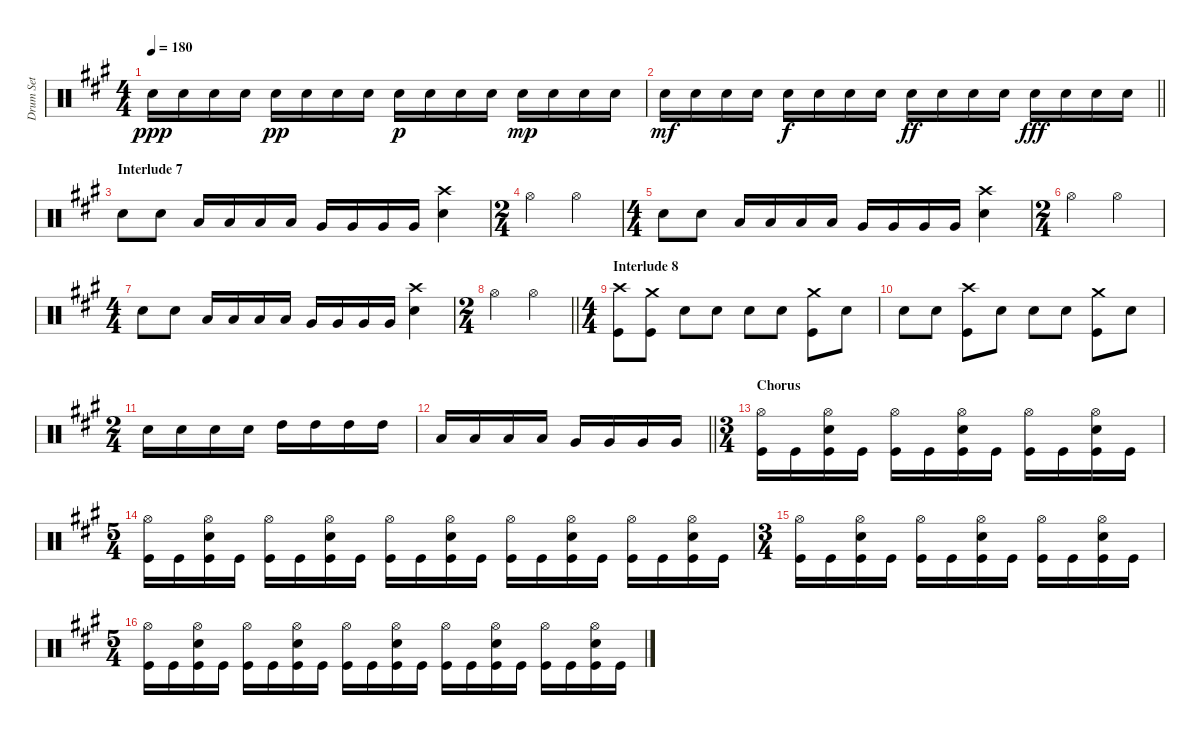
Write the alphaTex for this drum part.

\track ("Drum Set" "Drum Set") {instrument percussion}
\staff {score}
\articulation defaults
\ts (4 4)
\tempo 180
\clef neutral
\ks a "Electric Snare (hit)".16{dy ppp} "Electric Snare (hit)".16 "Electric Snare (hit)".16 "Electric Snare (hit)".16 "Electric Snare (hit)".16{dy pp} "Electric Snare (hit)".16 "Electric Snare (hit)".16 "Electric Snare (hit)".16 "Electric Snare (hit)".16{dy p} "Electric Snare (hit)".16 "Electric Snare (hit)".16 "Electric Snare (hit)".16 "Electric Snare (hit)".16{dy mp} "Electric Snare (hit)".16 "Electric Snare (hit)".16 "Electric Snare (hit)".16
|
\barLineRight lightlight "Electric Snare (hit)".16{dy mf} "Electric Snare (hit)".16 "Electric Snare (hit)".16 "Electric Snare (hit)".16 "Electric Snare (hit)".16{dy f} "Electric Snare (hit)".16 "Electric Snare (hit)".16 "Electric Snare (hit)".16 "Electric Snare (hit)".16{dy ff} "Electric Snare (hit)".16 "Electric Snare (hit)".16 "Electric Snare (hit)".16 "Electric Snare (hit)".16{dy fff} "Electric Snare (hit)".16 "Electric Snare (hit)".16 "Electric Snare (hit)".16
|
\section ("" "Interlude 7")
"Electric Snare (hit)".8 "Electric Snare (hit)".8 "Low Tom (hit)".16 "Low Tom (hit)".16 "Low Tom (hit)".16 "Low Tom (hit)".16 "Very Low Tom (hit)".16 "Very Low Tom (hit)".16 "Very Low Tom (hit)".16 "Very Low Tom (hit)".16 ("Crash high (hit)" "Electric Snare (hit)").4 |
\ts (2 4)
"Hi-Hat (open)".4 "Hi-Hat (open)".4 |
\ts (4 4)
"Electric Snare (hit)".8 "Electric Snare (hit)".8 "Low Tom (hit)".16 "Low Tom (hit)".16 "Low Tom (hit)".16 "Low Tom (hit)".16 "Very Low Tom (hit)".16 "Very Low Tom (hit)".16 "Very Low Tom (hit)".16 "Very Low Tom (hit)".16 ("Crash high (hit)" "Electric Snare (hit)").4 |
\ts (2 4)
"Hi-Hat (open)".4 "Hi-Hat (open)".4 |
\ts (4 4)
"Electric Snare (hit)".8 "Electric Snare (hit)".8 "Low Tom (hit)".16 "Low Tom (hit)".16 "Low Tom (hit)".16 "Low Tom (hit)".16 "Very Low Tom (hit)".16 "Very Low Tom (hit)".16 "Very Low Tom (hit)".16 "Very Low Tom (hit)".16 ("Crash high (hit)" "Electric Snare (hit)").4 |
\ts (2 4)
\barLineRight lightlight "Hi-Hat (open)".4 "Hi-Hat (open)".4
|
\ts (4 4)
\section ("" "Interlude 8")
("Crash high (hit)" "Kick (hit)").8 ("Crash medium (hit)" "Kick (hit)").8 "Electric Snare (hit)".8 "Electric Snare (hit)".8 "Electric Snare (hit)".8 "Electric Snare (hit)".8 ("Crash medium (hit)" "Kick (hit)").8 "Electric Snare (hit)".8 |
"Electric Snare (hit)".8 "Electric Snare (hit)".8 ("Crash high (hit)" "Kick (hit)").8 "Electric Snare (hit)".8 "Electric Snare (hit)".8 "Electric Snare (hit)".8 ("Crash medium (hit)" "Kick (hit)").8 "Electric Snare (hit)".8 |
\ts (2 4)
"Electric Snare (hit)".16 "Electric Snare (hit)".16 "Electric Snare (hit)".16 "Electric Snare (hit)".16 "High Tom (hit)".16 "High Tom (hit)".16 "High Tom (hit)".16 "High Tom (hit)".16 |
\barLineRight lightlight "Low Tom (hit)".16 "Low Tom (hit)".16 "Low Tom (hit)".16 "Low Tom (hit)".16 "Very Low Tom (hit)".16 "Very Low Tom (hit)".16 "Very Low Tom (hit)".16 "Very Low Tom (hit)".16
|
\ts (3 4)
\section ("" "Chorus")
("Hi-Hat (open)" "Kick (hit)").16 "Kick (hit)".16 ("Electric Snare (hit)" "Hi-Hat (open)" "Kick (hit)").16 "Kick (hit)".16 ("Hi-Hat (open)" "Kick (hit)").16 "Kick (hit)".16 ("Electric Snare (hit)" "Hi-Hat (open)" "Kick (hit)").16 "Kick (hit)".16 ("Hi-Hat (open)" "Kick (hit)").16 "Kick (hit)".16 ("Electric Snare (hit)" "Hi-Hat (open)" "Kick (hit)").16 "Kick (hit)".16 |
\ts (5 4)
("Hi-Hat (open)" "Kick (hit)").16 "Kick (hit)".16 ("Electric Snare (hit)" "Hi-Hat (open)" "Kick (hit)").16 "Kick (hit)".16 ("Hi-Hat (open)" "Kick (hit)").16 "Kick (hit)".16 ("Electric Snare (hit)" "Hi-Hat (open)" "Kick (hit)").16 "Kick (hit)".16 ("Hi-Hat (open)" "Kick (hit)").16 "Kick (hit)".16 ("Electric Snare (hit)" "Hi-Hat (open)" "Kick (hit)").16 "Kick (hit)".16 ("Hi-Hat (open)" "Kick (hit)").16 "Kick (hit)".16 ("Electric Snare (hit)" "Hi-Hat (open)" "Kick (hit)").16 "Kick (hit)".16 ("Hi-Hat (open)" "Kick (hit)").16 "Kick (hit)".16 ("Electric Snare (hit)" "Hi-Hat (open)" "Kick (hit)").16 "Kick (hit)".16 |
\ts (3 4)
("Hi-Hat (open)" "Kick (hit)").16 "Kick (hit)".16 ("Electric Snare (hit)" "Hi-Hat (open)" "Kick (hit)").16 "Kick (hit)".16 ("Hi-Hat (open)" "Kick (hit)").16 "Kick (hit)".16 ("Electric Snare (hit)" "Hi-Hat (open)" "Kick (hit)").16 "Kick (hit)".16 ("Hi-Hat (open)" "Kick (hit)").16 "Kick (hit)".16 ("Electric Snare (hit)" "Hi-Hat (open)" "Kick (hit)").16 "Kick (hit)".16 |
\ts (5 4)
("Hi-Hat (open)" "Kick (hit)").16 "Kick (hit)".16 ("Electric Snare (hit)" "Hi-Hat (open)" "Kick (hit)").16 "Kick (hit)".16 ("Hi-Hat (open)" "Kick (hit)").16 "Kick (hit)".16 ("Electric Snare (hit)" "Hi-Hat (open)" "Kick (hit)").16 "Kick (hit)".16 ("Hi-Hat (open)" "Kick (hit)").16 "Kick (hit)".16 ("Electric Snare (hit)" "Hi-Hat (open)" "Kick (hit)").16 "Kick (hit)".16 ("Hi-Hat (open)" "Kick (hit)").16 "Kick (hit)".16 ("Electric Snare (hit)" "Hi-Hat (open)" "Kick (hit)").16 "Kick (hit)".16 ("Hi-Hat (open)" "Kick (hit)").16 "Kick (hit)".16 ("Electric Snare (hit)" "Hi-Hat (open)" "Kick (hit)").16 "Kick (hit)".16
